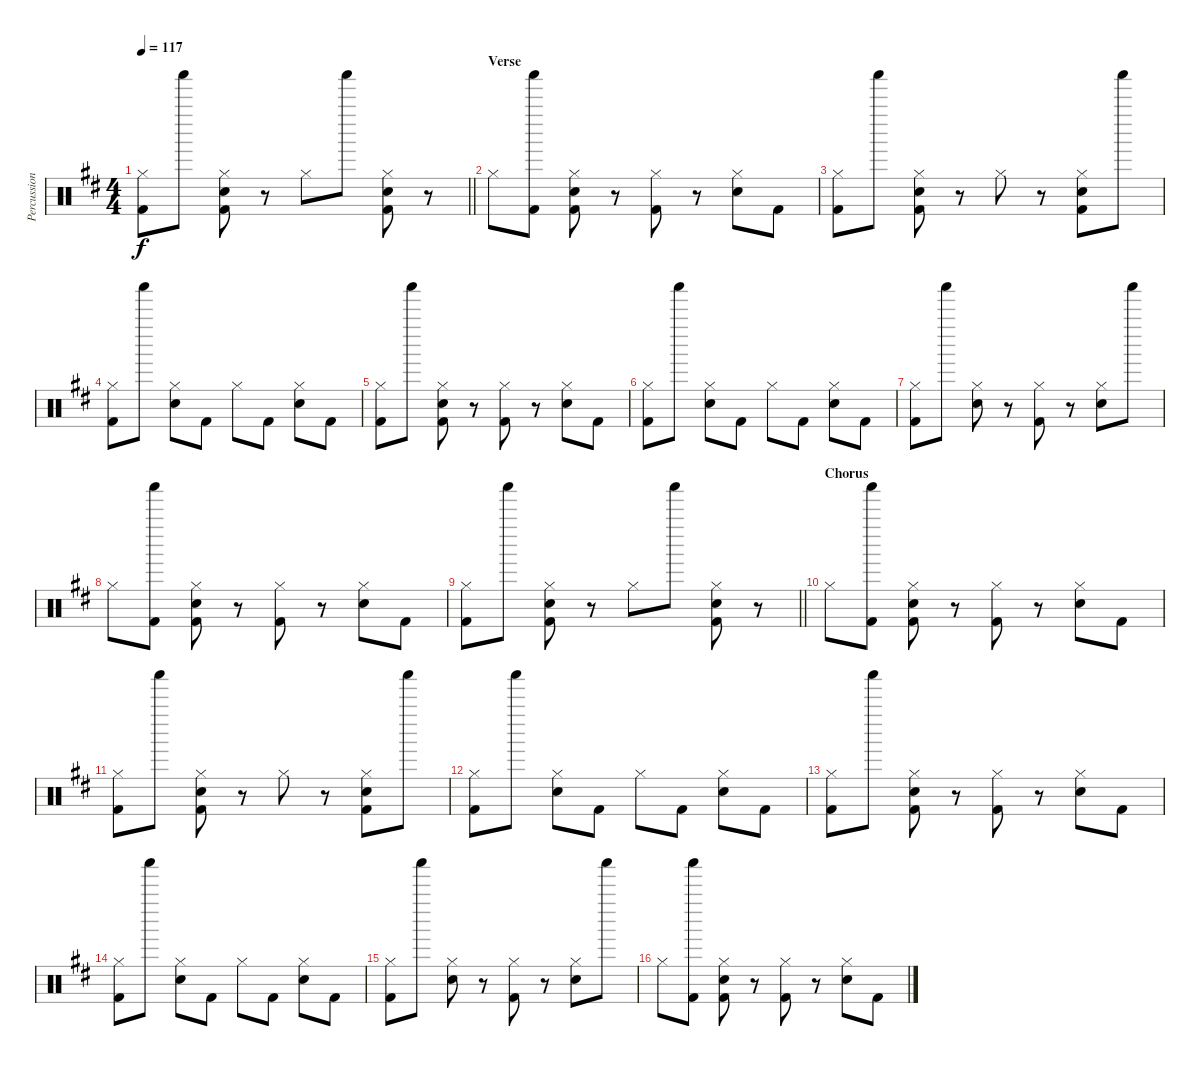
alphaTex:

\track ("Percussion" "Percussion") {instrument percussion}
\staff {score}
\articulation defaults
\ts (4 4)
\tempo 117
\clef neutral
\barLineRight lightlight
\ks d
("Hi-Hat (closed)" "Kick (hit) 2").8{dy f} "Shaker (hit)".8 ("Hi-Hat (closed)" "Snare (hit) 2" "Kick (hit) 2").8 r.8 "Hi-Hat (closed)".8 "Shaker (hit)".8 ("Hi-Hat (closed)" "Snare (hit) 2" "Kick (hit) 2").8 r.8 |
\section ("" "Verse")
"Hi-Hat (closed)".8 ("Shaker (hit)" "Kick (hit) 2").8 ("Hi-Hat (closed)" "Snare (hit) 2" "Kick (hit) 2").8 r.8 ("Hi-Hat (closed)" "Kick (hit) 2").8 r.8 ("Hi-Hat (closed)" "Snare (hit) 2").8 "Kick (hit) 2".8 |
("Hi-Hat (closed)" "Kick (hit) 2").8 "Shaker (hit)".8 ("Hi-Hat (closed)" "Snare (hit) 2" "Kick (hit) 2").8 r.8 "Hi-Hat (closed)".8 r.8 ("Hi-Hat (closed)" "Snare (hit) 2" "Kick (hit) 2").8 "Shaker (hit)".8 |
("Hi-Hat (closed)" "Kick (hit) 2").8 "Shaker (hit)".8 ("Hi-Hat (closed)" "Snare (hit) 2").8 "Kick (hit) 2".8 "Hi-Hat (closed)".8 "Kick (hit) 2".8 ("Hi-Hat (closed)" "Snare (hit) 2").8 "Kick (hit) 2".8 |
("Hi-Hat (closed)" "Kick (hit) 2").8 "Shaker (hit)".8 ("Hi-Hat (closed)" "Snare (hit) 2" "Kick (hit) 2").8 r.8 ("Hi-Hat (closed)" "Kick (hit) 2").8 r.8 ("Hi-Hat (closed)" "Snare (hit) 2").8 "Kick (hit) 2".8 |
("Hi-Hat (closed)" "Kick (hit) 2").8 "Shaker (hit)".8 ("Hi-Hat (closed)" "Snare (hit) 2").8 "Kick (hit) 2".8 "Hi-Hat (closed)".8 "Kick (hit) 2".8 ("Hi-Hat (closed)" "Snare (hit) 2").8 "Kick (hit) 2".8 |
("Hi-Hat (closed)" "Kick (hit) 2").8 "Shaker (hit)".8 ("Hi-Hat (closed)" "Snare (hit) 2").8 r.8 ("Hi-Hat (closed)" "Kick (hit) 2").8 r.8 ("Hi-Hat (closed)" "Snare (hit) 2").8 "Shaker (hit)".8 |
"Hi-Hat (closed)".8 ("Shaker (hit)" "Kick (hit) 2").8 ("Hi-Hat (closed)" "Snare (hit) 2" "Kick (hit) 2").8 r.8 ("Hi-Hat (closed)" "Kick (hit) 2").8 r.8 ("Hi-Hat (closed)" "Snare (hit) 2").8 "Kick (hit) 2".8 |
\barLineRight lightlight
("Hi-Hat (closed)" "Kick (hit) 2").8 "Shaker (hit)".8 ("Hi-Hat (closed)" "Snare (hit) 2" "Kick (hit) 2").8 r.8 "Hi-Hat (closed)".8 "Shaker (hit)".8 ("Hi-Hat (closed)" "Snare (hit) 2" "Kick (hit) 2").8 r.8 |
\section ("" "Chorus")
"Hi-Hat (closed)".8 ("Shaker (hit)" "Kick (hit) 2").8 ("Hi-Hat (closed)" "Snare (hit) 2" "Kick (hit) 2").8 r.8 ("Hi-Hat (closed)" "Kick (hit) 2").8 r.8 ("Hi-Hat (closed)" "Snare (hit) 2").8 "Kick (hit) 2".8 |
("Hi-Hat (closed)" "Kick (hit) 2").8 "Shaker (hit)".8 ("Hi-Hat (closed)" "Snare (hit) 2" "Kick (hit) 2").8 r.8 "Hi-Hat (closed)".8 r.8 ("Hi-Hat (closed)" "Snare (hit) 2" "Kick (hit) 2").8 "Shaker (hit)".8 |
("Hi-Hat (closed)" "Kick (hit) 2").8 "Shaker (hit)".8 ("Hi-Hat (closed)" "Snare (hit) 2").8 "Kick (hit) 2".8 "Hi-Hat (closed)".8 "Kick (hit) 2".8 ("Hi-Hat (closed)" "Snare (hit) 2").8 "Kick (hit) 2".8 |
("Hi-Hat (closed)" "Kick (hit) 2").8 "Shaker (hit)".8 ("Hi-Hat (closed)" "Snare (hit) 2" "Kick (hit) 2").8 r.8 ("Hi-Hat (closed)" "Kick (hit) 2").8 r.8 ("Hi-Hat (closed)" "Snare (hit) 2").8 "Kick (hit) 2".8 |
("Hi-Hat (closed)" "Kick (hit) 2").8 "Shaker (hit)".8 ("Hi-Hat (closed)" "Snare (hit) 2").8 "Kick (hit) 2".8 "Hi-Hat (closed)".8 "Kick (hit) 2".8 ("Hi-Hat (closed)" "Snare (hit) 2").8 "Kick (hit) 2".8 |
("Hi-Hat (closed)" "Kick (hit) 2").8 "Shaker (hit)".8 ("Hi-Hat (closed)" "Snare (hit) 2").8 r.8 ("Hi-Hat (closed)" "Kick (hit) 2").8 r.8 ("Hi-Hat (closed)" "Snare (hit) 2").8 "Shaker (hit)".8 |
"Hi-Hat (closed)".8 ("Shaker (hit)" "Kick (hit) 2").8 ("Hi-Hat (closed)" "Snare (hit) 2" "Kick (hit) 2").8 r.8 ("Hi-Hat (closed)" "Kick (hit) 2").8 r.8 ("Hi-Hat (closed)" "Snare (hit) 2").8 "Kick (hit) 2".8
